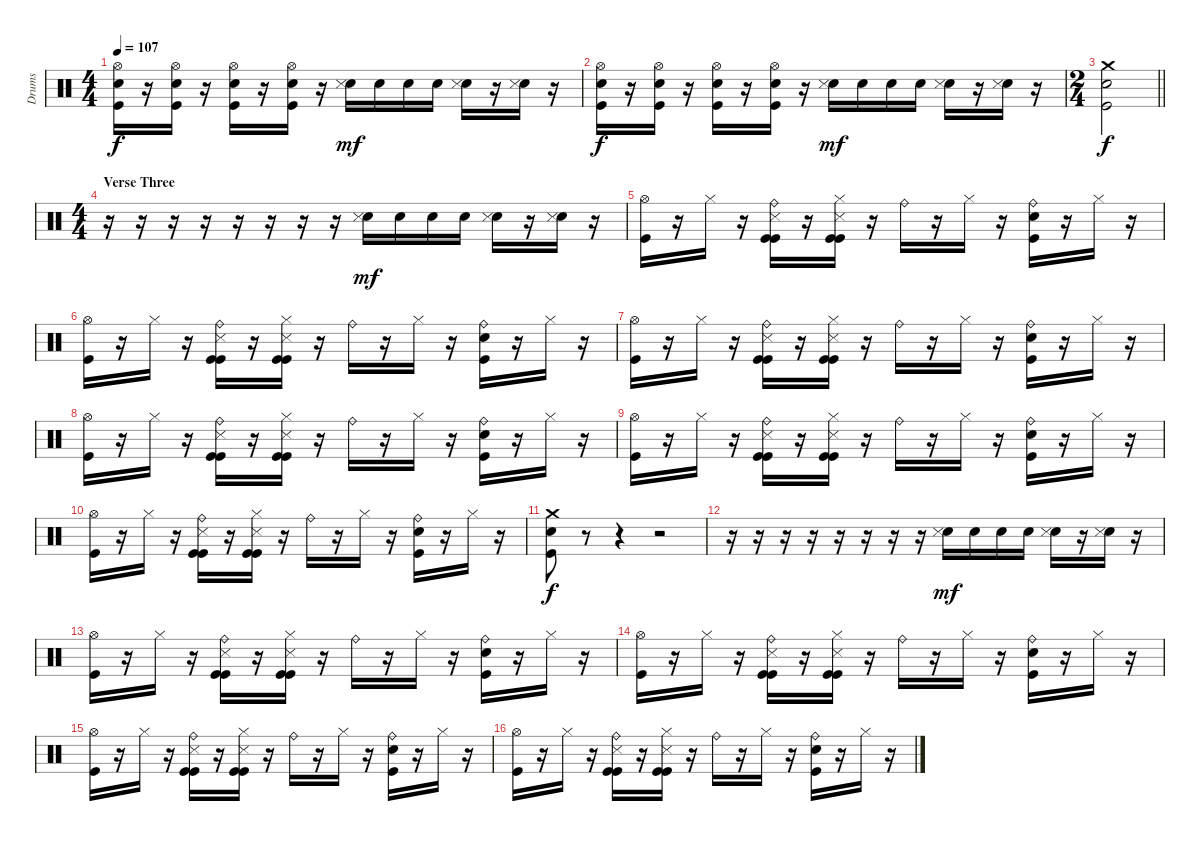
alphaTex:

\track ("Drums" "Drums") {instrument percussion}
\staff {score}
\articulation defaults
\ts (4 4)
\tempo 107
\clef neutral
\ks c
("Hi-Hat (open)" "Electric Snare (hit)" "Kick (hit)").16{dy f} r.16 ("Hi-Hat (open)" "Electric Snare (hit)" "Kick (hit)").16 r.16 ("Hi-Hat (open)" "Electric Snare (hit)" "Kick (hit)").16 r.16 ("Hi-Hat (open)" "Electric Snare (hit)" "Kick (hit)").16 r.16 ("Electric Snare (hit)" "Snare (side stick) 3").16{dy mf} "Electric Snare (hit)".16 "Electric Snare (hit)".16 "Electric Snare (hit)".16 ("Electric Snare (hit)" "Snare (side stick) 3").16 r.16 ("Electric Snare (hit)" "Snare (side stick) 3").16 r.16 |
("Hi-Hat (open)" "Electric Snare (hit)" "Kick (hit)").16{dy f} r.16 ("Hi-Hat (open)" "Electric Snare (hit)" "Kick (hit)").16 r.16 ("Hi-Hat (open)" "Electric Snare (hit)" "Kick (hit)").16 r.16 ("Hi-Hat (open)" "Electric Snare (hit)" "Kick (hit)").16 r.16 ("Electric Snare (hit)" "Snare (side stick) 3").16{dy mf} "Electric Snare (hit)".16 "Electric Snare (hit)".16 "Electric Snare (hit)".16 ("Electric Snare (hit)" "Snare (side stick) 3").16 r.16 ("Electric Snare (hit)" "Snare (side stick) 3").16 r.16 |
\ts (2 4)
\barLineRight lightlight
("Crash medium (hit)" "Electric Snare (hit)" "Kick (hit)").2{dy f} |
\ts (4 4)
\section ("" "Verse Three")
r.16 r.16 r.16 r.16 r.16 r.16 r.16 r.16 ("Electric Snare (hit)" "Snare (side stick) 3").16{dy mf} "Electric Snare (hit)".16 "Electric Snare (hit)".16 "Electric Snare (hit)".16 ("Electric Snare (hit)" "Snare (side stick) 3").16 r.16 ("Electric Snare (hit)" "Snare (side stick) 3").16 r.16 |
("Hi-Hat (open)" "Kick (hit)").16 r.16 "Hi-Hat (closed)".16 r.16 ("Ride (bell)" "Kick (hit)" "Snare (side stick) 3" "Kick (hit)").16 r.16 ("Hi-Hat (closed)" "Kick (hit)" "Snare (side stick) 3" "Kick (hit)").16 r.16 "Ride (bell)".16 r.16 "Hi-Hat (closed)".16 r.16 ("Ride (bell)" "Electric Snare (hit)" "Kick (hit)").16 r.16 "Hi-Hat (closed)".16 r.16 |
("Hi-Hat (open)" "Kick (hit)").16 r.16 "Hi-Hat (closed)".16 r.16 ("Ride (bell)" "Kick (hit)" "Snare (side stick) 3" "Kick (hit)").16 r.16 ("Hi-Hat (closed)" "Kick (hit)" "Snare (side stick) 3" "Kick (hit)").16 r.16 "Ride (bell)".16 r.16 "Hi-Hat (closed)".16 r.16 ("Ride (bell)" "Electric Snare (hit)" "Kick (hit)").16 r.16 "Hi-Hat (closed)".16 r.16 |
("Hi-Hat (open)" "Kick (hit)").16 r.16 "Hi-Hat (closed)".16 r.16 ("Ride (bell)" "Kick (hit)" "Snare (side stick) 3" "Kick (hit)").16 r.16 ("Hi-Hat (closed)" "Kick (hit)" "Snare (side stick) 3" "Kick (hit)").16 r.16 "Ride (bell)".16 r.16 "Hi-Hat (closed)".16 r.16 ("Ride (bell)" "Electric Snare (hit)" "Kick (hit)").16 r.16 "Hi-Hat (closed)".16 r.16 |
("Hi-Hat (open)" "Kick (hit)").16 r.16 "Hi-Hat (closed)".16 r.16 ("Ride (bell)" "Kick (hit)" "Snare (side stick) 3" "Kick (hit)").16 r.16 ("Hi-Hat (closed)" "Kick (hit)" "Snare (side stick) 3" "Kick (hit)").16 r.16 "Ride (bell)".16 r.16 "Hi-Hat (closed)".16 r.16 ("Ride (bell)" "Electric Snare (hit)" "Kick (hit)").16 r.16 "Hi-Hat (closed)".16 r.16 |
("Hi-Hat (open)" "Kick (hit)").16 r.16 "Hi-Hat (closed)".16 r.16 ("Ride (bell)" "Kick (hit)" "Snare (side stick) 3" "Kick (hit)").16 r.16 ("Hi-Hat (closed)" "Kick (hit)" "Snare (side stick) 3" "Kick (hit)").16 r.16 "Ride (bell)".16 r.16 "Hi-Hat (closed)".16 r.16 ("Ride (bell)" "Electric Snare (hit)" "Kick (hit)").16 r.16 "Hi-Hat (closed)".16 r.16 |
("Hi-Hat (open)" "Kick (hit)").16 r.16 "Hi-Hat (closed)".16 r.16 ("Ride (bell)" "Kick (hit)" "Snare (side stick) 3" "Kick (hit)").16 r.16 ("Hi-Hat (closed)" "Kick (hit)" "Snare (side stick) 3" "Kick (hit)").16 r.16 "Ride (bell)".16 r.16 "Hi-Hat (closed)".16 r.16 ("Ride (bell)" "Electric Snare (hit)" "Kick (hit)").16 r.16 "Hi-Hat (closed)".16 r.16 |
("Crash medium (hit)" "Electric Snare (hit)" "Kick (hit)").8{dy f} r.8 r.4 r.2 |
r.16 r.16 r.16 r.16 r.16 r.16 r.16 r.16 ("Electric Snare (hit)" "Snare (side stick) 3").16{dy mf} "Electric Snare (hit)".16 "Electric Snare (hit)".16 "Electric Snare (hit)".16 ("Electric Snare (hit)" "Snare (side stick) 3").16 r.16 ("Electric Snare (hit)" "Snare (side stick) 3").16 r.16 |
("Hi-Hat (open)" "Kick (hit)").16 r.16 "Hi-Hat (closed)".16 r.16 ("Ride (bell)" "Kick (hit)" "Snare (side stick) 3" "Kick (hit)").16 r.16 ("Hi-Hat (closed)" "Kick (hit)" "Snare (side stick) 3" "Kick (hit)").16 r.16 "Ride (bell)".16 r.16 "Hi-Hat (closed)".16 r.16 ("Ride (bell)" "Electric Snare (hit)" "Kick (hit)").16 r.16 "Hi-Hat (closed)".16 r.16 |
("Hi-Hat (open)" "Kick (hit)").16 r.16 "Hi-Hat (closed)".16 r.16 ("Ride (bell)" "Kick (hit)" "Snare (side stick) 3" "Kick (hit)").16 r.16 ("Hi-Hat (closed)" "Kick (hit)" "Snare (side stick) 3" "Kick (hit)").16 r.16 "Ride (bell)".16 r.16 "Hi-Hat (closed)".16 r.16 ("Ride (bell)" "Electric Snare (hit)" "Kick (hit)").16 r.16 "Hi-Hat (closed)".16 r.16 |
("Hi-Hat (open)" "Kick (hit)").16 r.16 "Hi-Hat (closed)".16 r.16 ("Ride (bell)" "Kick (hit)" "Snare (side stick) 3" "Kick (hit)").16 r.16 ("Hi-Hat (closed)" "Kick (hit)" "Snare (side stick) 3" "Kick (hit)").16 r.16 "Ride (bell)".16 r.16 "Hi-Hat (closed)".16 r.16 ("Ride (bell)" "Electric Snare (hit)" "Kick (hit)").16 r.16 "Hi-Hat (closed)".16 r.16 |
("Hi-Hat (open)" "Kick (hit)").16 r.16 "Hi-Hat (closed)".16 r.16 ("Ride (bell)" "Kick (hit)" "Snare (side stick) 3" "Kick (hit)").16 r.16 ("Hi-Hat (closed)" "Kick (hit)" "Snare (side stick) 3" "Kick (hit)").16 r.16 "Ride (bell)".16 r.16 "Hi-Hat (closed)".16 r.16 ("Ride (bell)" "Electric Snare (hit)" "Kick (hit)").16 r.16 "Hi-Hat (closed)".16 r.16
